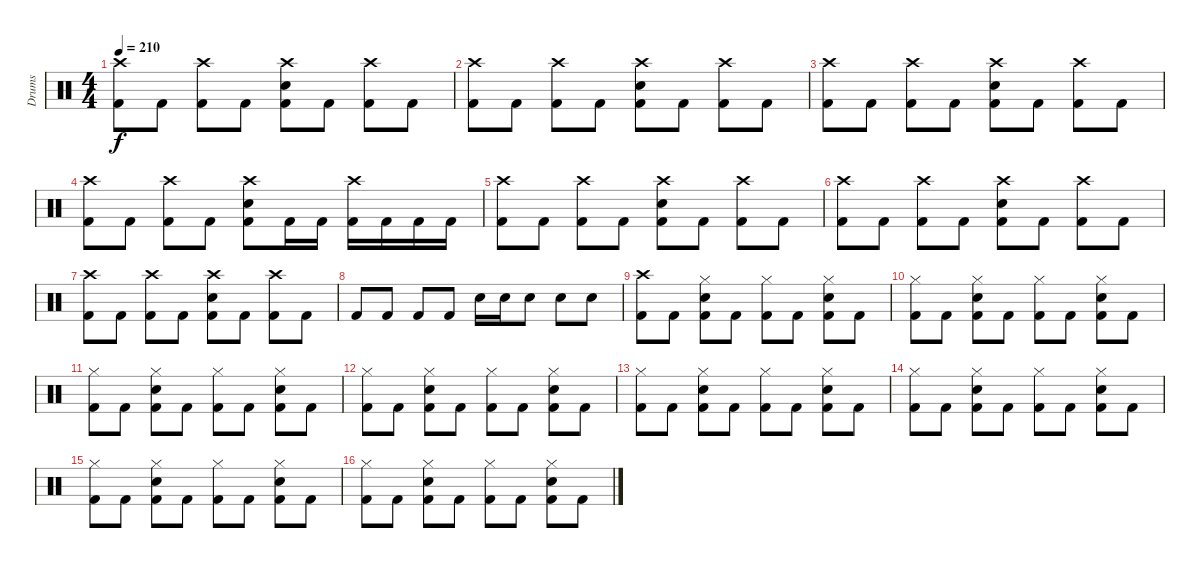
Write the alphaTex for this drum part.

\track ("Drums" "Drums") {instrument percussion}
\staff {score}
\articulation defaults
\ts (4 4)
\tempo 210
\clef neutral
\ks c
("Crash high (hit)" "Kick (hit) 2").8{dy f} "Kick (hit) 2".8 ("Crash high (hit)" "Kick (hit) 2").8 "Kick (hit) 2".8 ("Crash high (hit)" "Electric Snare (hit)" "Kick (hit) 2").8 "Kick (hit) 2".8 ("Crash high (hit)" "Kick (hit) 2").8 "Kick (hit) 2".8 |
("Crash high (hit)" "Kick (hit) 2").8 "Kick (hit) 2".8 ("Crash high (hit)" "Kick (hit) 2").8 "Kick (hit) 2".8 ("Crash high (hit)" "Electric Snare (hit)" "Kick (hit) 2").8 "Kick (hit) 2".8 ("Crash high (hit)" "Kick (hit) 2").8 "Kick (hit) 2".8 |
("Crash high (hit)" "Kick (hit) 2").8 "Kick (hit) 2".8 ("Crash high (hit)" "Kick (hit) 2").8 "Kick (hit) 2".8 ("Crash high (hit)" "Electric Snare (hit)" "Kick (hit) 2").8 "Kick (hit) 2".8 ("Crash high (hit)" "Kick (hit) 2").8 "Kick (hit) 2".8 |
("Crash high (hit)" "Kick (hit) 2").8 "Kick (hit) 2".8 ("Crash high (hit)" "Kick (hit) 2").8 "Kick (hit) 2".8 ("Crash high (hit)" "Electric Snare (hit)" "Kick (hit) 2").8 "Kick (hit) 2".16 "Kick (hit) 2".16 ("Crash high (hit)" "Kick (hit) 2").16 "Kick (hit) 2".16 "Kick (hit) 2".16 "Kick (hit) 2".16 |
("Crash high (hit)" "Kick (hit) 2").8 "Kick (hit) 2".8 ("Crash high (hit)" "Kick (hit) 2").8 "Kick (hit) 2".8 ("Crash high (hit)" "Electric Snare (hit)" "Kick (hit) 2").8 "Kick (hit) 2".8 ("Crash high (hit)" "Kick (hit) 2").8 "Kick (hit) 2".8 |
("Crash high (hit)" "Kick (hit) 2").8 "Kick (hit) 2".8 ("Crash high (hit)" "Kick (hit) 2").8 "Kick (hit) 2".8 ("Crash high (hit)" "Electric Snare (hit)" "Kick (hit) 2").8 "Kick (hit) 2".8 ("Crash high (hit)" "Kick (hit) 2").8 "Kick (hit) 2".8 |
("Crash high (hit)" "Kick (hit) 2").8 "Kick (hit) 2".8 ("Crash high (hit)" "Kick (hit) 2").8 "Kick (hit) 2".8 ("Crash high (hit)" "Electric Snare (hit)" "Kick (hit) 2").8 "Kick (hit) 2".8 ("Crash high (hit)" "Kick (hit) 2").8 "Kick (hit) 2".8 |
"Kick (hit) 2".8 "Kick (hit) 2".8 "Kick (hit) 2".8 "Kick (hit) 2".8 "Electric Snare (hit)".16 "Electric Snare (hit)".16 "Electric Snare (hit)".8 "Electric Snare (hit)".8 "Electric Snare (hit)".8 |
("Crash high (hit)" "Kick (hit) 2").8 "Kick (hit) 2".8 ("Hi-Hat (closed)" "Electric Snare (hit)" "Kick (hit) 2").8 "Kick (hit) 2".8 ("Hi-Hat (closed)" "Kick (hit) 2").8 "Kick (hit) 2".8 ("Hi-Hat (closed)" "Electric Snare (hit)" "Kick (hit) 2").8 "Kick (hit) 2".8 |
("Hi-Hat (closed)" "Kick (hit) 2").8 "Kick (hit) 2".8 ("Hi-Hat (closed)" "Electric Snare (hit)" "Kick (hit) 2").8 "Kick (hit) 2".8 ("Hi-Hat (closed)" "Kick (hit) 2").8 "Kick (hit) 2".8 ("Hi-Hat (closed)" "Electric Snare (hit)" "Kick (hit) 2").8 "Kick (hit) 2".8 |
("Hi-Hat (closed)" "Kick (hit) 2").8 "Kick (hit) 2".8 ("Hi-Hat (closed)" "Electric Snare (hit)" "Kick (hit) 2").8 "Kick (hit) 2".8 ("Hi-Hat (closed)" "Kick (hit) 2").8 "Kick (hit) 2".8 ("Hi-Hat (closed)" "Electric Snare (hit)" "Kick (hit) 2").8 "Kick (hit) 2".8 |
("Hi-Hat (closed)" "Kick (hit) 2").8 "Kick (hit) 2".8 ("Hi-Hat (closed)" "Electric Snare (hit)" "Kick (hit) 2").8 "Kick (hit) 2".8 ("Hi-Hat (closed)" "Kick (hit) 2").8 "Kick (hit) 2".8 ("Hi-Hat (closed)" "Electric Snare (hit)" "Kick (hit) 2").8 "Kick (hit) 2".8 |
("Hi-Hat (closed)" "Kick (hit) 2").8 "Kick (hit) 2".8 ("Hi-Hat (closed)" "Electric Snare (hit)" "Kick (hit) 2").8 "Kick (hit) 2".8 ("Hi-Hat (closed)" "Kick (hit) 2").8 "Kick (hit) 2".8 ("Hi-Hat (closed)" "Electric Snare (hit)" "Kick (hit) 2").8 "Kick (hit) 2".8 |
("Hi-Hat (closed)" "Kick (hit) 2").8 "Kick (hit) 2".8 ("Hi-Hat (closed)" "Electric Snare (hit)" "Kick (hit) 2").8 "Kick (hit) 2".8 ("Hi-Hat (closed)" "Kick (hit) 2").8 "Kick (hit) 2".8 ("Hi-Hat (closed)" "Electric Snare (hit)" "Kick (hit) 2").8 "Kick (hit) 2".8 |
("Hi-Hat (closed)" "Kick (hit) 2").8 "Kick (hit) 2".8 ("Hi-Hat (closed)" "Electric Snare (hit)" "Kick (hit) 2").8 "Kick (hit) 2".8 ("Hi-Hat (closed)" "Kick (hit) 2").8 "Kick (hit) 2".8 ("Hi-Hat (closed)" "Electric Snare (hit)" "Kick (hit) 2").8 "Kick (hit) 2".8 |
("Hi-Hat (closed)" "Kick (hit) 2").8 "Kick (hit) 2".8 ("Hi-Hat (closed)" "Electric Snare (hit)" "Kick (hit) 2").8 "Kick (hit) 2".8 ("Hi-Hat (closed)" "Kick (hit) 2").8 "Kick (hit) 2".8 ("Hi-Hat (closed)" "Electric Snare (hit)" "Kick (hit) 2").8 "Kick (hit) 2".8
